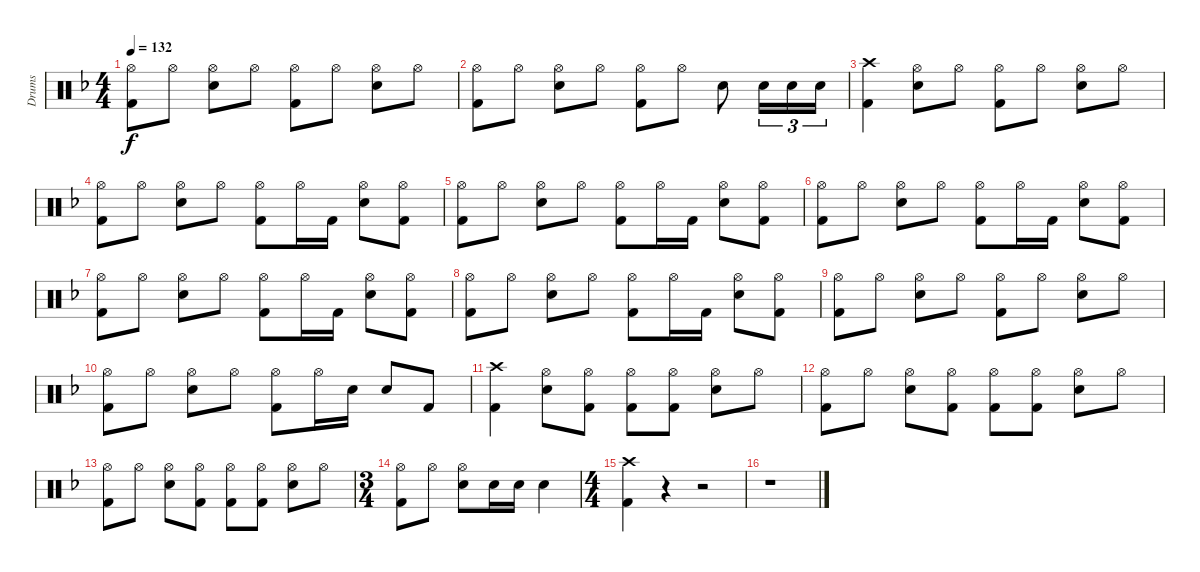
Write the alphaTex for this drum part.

\track ("Drums " "Drums ") {instrument percussion}
\staff {score}
\articulation defaults
\ts (4 4)
\tempo 132
\clef neutral
\ks dminor
("Kick (hit) 2" "Hi-Hat (open)").8{dy f} "Hi-Hat (open)".8 ("Snare (hit) 2" "Hi-Hat (open)").8 "Hi-Hat (open)".8 ("Kick (hit) 2" "Hi-Hat (open)").8 "Hi-Hat (open)".8 ("Snare (hit) 2" "Hi-Hat (open)").8 "Hi-Hat (open)".8 |
("Kick (hit) 2" "Hi-Hat (open)").8 "Hi-Hat (open)".8 ("Snare (hit) 2" "Hi-Hat (open)").8 "Hi-Hat (open)".8 ("Kick (hit) 2" "Hi-Hat (open)").8 "Hi-Hat (open)".8 "Snare (hit) 2".8 "Snare (hit) 2".16{tu (3 2)} "Snare (hit) 2".16{tu (3 2)} "Snare (hit) 2".16{tu (3 2)} |
("Kick (hit) 2" "Crash high (hit)").4 ("Snare (hit) 2" "Hi-Hat (open)").8 "Hi-Hat (open)".8 ("Kick (hit) 2" "Hi-Hat (open)").8 "Hi-Hat (open)".8 ("Snare (hit) 2" "Hi-Hat (open)").8 "Hi-Hat (open)".8 |
("Kick (hit) 2" "Hi-Hat (open)").8 "Hi-Hat (open)".8 ("Snare (hit) 2" "Hi-Hat (open)").8 "Hi-Hat (open)".8 ("Kick (hit) 2" "Hi-Hat (open)").8 "Hi-Hat (open)".16 "Kick (hit) 2".16 ("Snare (hit) 2" "Hi-Hat (open)").8 ("Kick (hit) 2" "Hi-Hat (open)").8 |
("Kick (hit) 2" "Hi-Hat (open)").8 "Hi-Hat (open)".8 ("Snare (hit) 2" "Hi-Hat (open)").8 "Hi-Hat (open)".8 ("Kick (hit) 2" "Hi-Hat (open)").8 "Hi-Hat (open)".16 "Kick (hit) 2".16 ("Snare (hit) 2" "Hi-Hat (open)").8 ("Kick (hit) 2" "Hi-Hat (open)").8 |
("Kick (hit) 2" "Hi-Hat (open)").8 "Hi-Hat (open)".8 ("Snare (hit) 2" "Hi-Hat (open)").8 "Hi-Hat (open)".8 ("Kick (hit) 2" "Hi-Hat (open)").8 "Hi-Hat (open)".16 "Kick (hit) 2".16 ("Snare (hit) 2" "Hi-Hat (open)").8 ("Kick (hit) 2" "Hi-Hat (open)").8 |
("Kick (hit) 2" "Hi-Hat (open)").8 "Hi-Hat (open)".8 ("Snare (hit) 2" "Hi-Hat (open)").8 "Hi-Hat (open)".8 ("Kick (hit) 2" "Hi-Hat (open)").8 "Hi-Hat (open)".16 "Kick (hit) 2".16 ("Snare (hit) 2" "Hi-Hat (open)").8 ("Kick (hit) 2" "Hi-Hat (open)").8 |
("Kick (hit) 2" "Hi-Hat (open)").8 "Hi-Hat (open)".8 ("Snare (hit) 2" "Hi-Hat (open)").8 "Hi-Hat (open)".8 ("Kick (hit) 2" "Hi-Hat (open)").8 "Hi-Hat (open)".16 "Kick (hit) 2".16 ("Snare (hit) 2" "Hi-Hat (open)").8 ("Kick (hit) 2" "Hi-Hat (open)").8 |
("Kick (hit) 2" "Hi-Hat (open)").8 "Hi-Hat (open)".8 ("Snare (hit) 2" "Hi-Hat (open)").8 "Hi-Hat (open)".8 ("Kick (hit) 2" "Hi-Hat (open)").8 "Hi-Hat (open)".8 ("Snare (hit) 2" "Hi-Hat (open)").8 "Hi-Hat (open)".8 |
("Kick (hit) 2" "Hi-Hat (open)").8 "Hi-Hat (open)".8 ("Snare (hit) 2" "Hi-Hat (open)").8 "Hi-Hat (open)".8 ("Kick (hit) 2" "Hi-Hat (open)").8 "Hi-Hat (open)".16 "Snare (hit) 2".16 "Snare (hit) 2".8 "Kick (hit) 2".8 |
("Kick (hit) 2" "Crash high (hit)").4 ("Snare (hit) 2" "Hi-Hat (open)").8 ("Kick (hit) 2" "Hi-Hat (open)").8 ("Kick (hit) 2" "Hi-Hat (open)").8 ("Kick (hit) 2" "Hi-Hat (open)").8 ("Snare (hit) 2" "Hi-Hat (open)").8 "Hi-Hat (open)".8 |
("Kick (hit) 2" "Hi-Hat (open)").8 "Hi-Hat (open)".8 ("Snare (hit) 2" "Hi-Hat (open)").8 ("Kick (hit) 2" "Hi-Hat (open)").8 ("Kick (hit) 2" "Hi-Hat (open)").8 ("Kick (hit) 2" "Hi-Hat (open)").8 ("Snare (hit) 2" "Hi-Hat (open)").8 "Hi-Hat (open)".8 |
("Kick (hit) 2" "Hi-Hat (open)").8 "Hi-Hat (open)".8 ("Snare (hit) 2" "Hi-Hat (open)").8 ("Kick (hit) 2" "Hi-Hat (open)").8 ("Kick (hit) 2" "Hi-Hat (open)").8 ("Kick (hit) 2" "Hi-Hat (open)").8 ("Snare (hit) 2" "Hi-Hat (open)").8 "Hi-Hat (open)".8 |
\ts (3 4)
("Kick (hit) 2" "Hi-Hat (open)").8 "Hi-Hat (open)".8 ("Snare (hit) 2" "Hi-Hat (open)").8 "Snare (hit) 2".16 "Snare (hit) 2".16 "Snare (hit) 2".4 |
\ts (4 4)
("Kick (hit) 2" "Crash high (hit)").4 r.4 r.2 |
r.1
